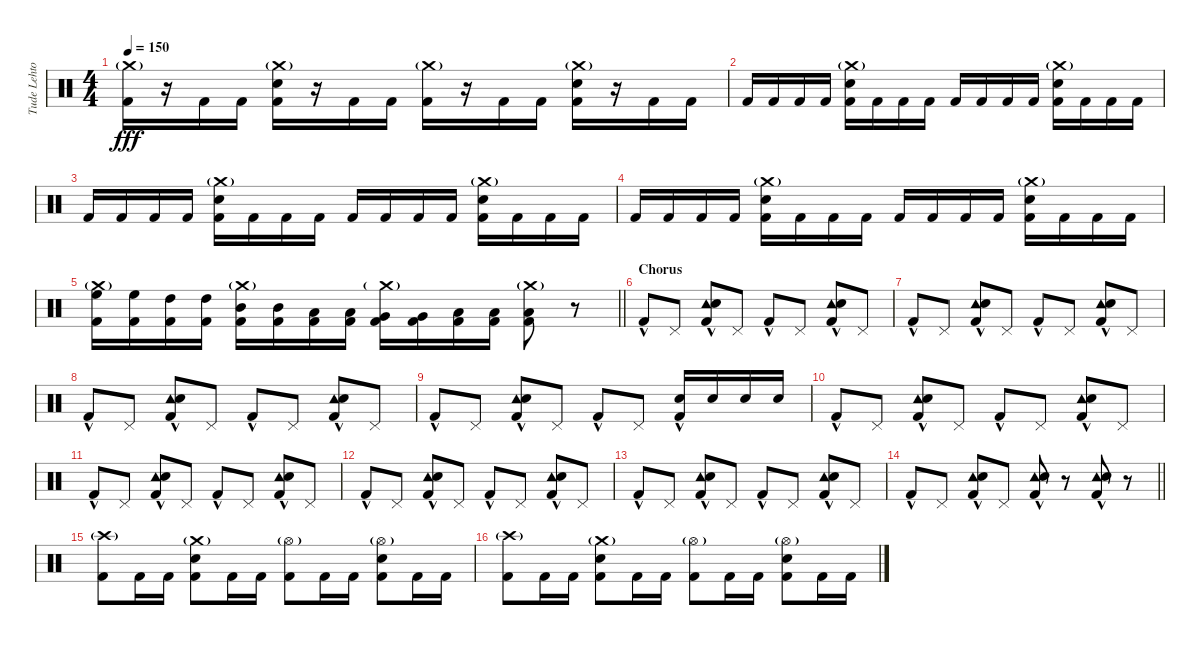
\track ("Tude Lehtonen" "Tude Lehto") {instrument percussion}
\staff {score}
\articulation defaults
\ts (4 4)
\tempo 150
\clef neutral
\ks c
("Crash medium (hit)"{g} "Kick (hit) 2").16{dy fff} r.16 "Kick (hit) 2".16 "Kick (hit) 2".16 ("Crash medium (hit)"{g} "Snare (hit) 2" "Kick (hit) 2").16 r.16 "Kick (hit) 2".16 "Kick (hit) 2".16 ("Crash medium (hit)"{g} "Kick (hit) 2").16 r.16 "Kick (hit) 2".16 "Kick (hit) 2".16 ("Crash medium (hit)"{g} "Snare (hit) 2" "Kick (hit) 2").16 r.16 "Kick (hit) 2".16 "Kick (hit) 2".16 |
"Kick (hit) 2".16 "Kick (hit) 2".16 "Kick (hit) 2".16 "Kick (hit) 2".16 ("Crash medium (hit)"{g} "Snare (hit) 2" "Kick (hit) 2").16 "Kick (hit) 2".16 "Kick (hit) 2".16 "Kick (hit) 2".16 "Kick (hit) 2".16 "Kick (hit) 2".16 "Kick (hit) 2".16 "Kick (hit) 2".16 ("Crash medium (hit)"{g} "Snare (hit) 2" "Kick (hit) 2").16 "Kick (hit) 2".16 "Kick (hit) 2".16 "Kick (hit) 2".16 |
"Kick (hit) 2".16 "Kick (hit) 2".16 "Kick (hit) 2".16 "Kick (hit) 2".16 ("Crash medium (hit)"{g} "Snare (hit) 2" "Kick (hit) 2").16 "Kick (hit) 2".16 "Kick (hit) 2".16 "Kick (hit) 2".16 "Kick (hit) 2".16 "Kick (hit) 2".16 "Kick (hit) 2".16 "Kick (hit) 2".16 ("Crash medium (hit)"{g} "Snare (hit) 2" "Kick (hit) 2").16 "Kick (hit) 2".16 "Kick (hit) 2".16 "Kick (hit) 2".16 |
"Kick (hit) 2".16 "Kick (hit) 2".16 "Kick (hit) 2".16 "Kick (hit) 2".16 ("Crash medium (hit)"{g} "Snare (hit) 2" "Kick (hit) 2").16 "Kick (hit) 2".16 "Kick (hit) 2".16 "Kick (hit) 2".16 "Kick (hit) 2".16 "Kick (hit) 2".16 "Kick (hit) 2".16 "Kick (hit) 2".16 ("Crash medium (hit)"{g} "Snare (hit) 2" "Kick (hit) 2").16 "Kick (hit) 2".16 "Kick (hit) 2".16 "Kick (hit) 2".16 |
\barLineRight lightlight
("Crash medium (hit)"{g} "High Floor Tom (hit)" "Kick (hit) 2").16 ("High Floor Tom (hit)" "Kick (hit) 2").16 ("High Tom (hit)" "Kick (hit) 2").16 ("High Tom (hit)" "Kick (hit) 2").16 ("Crash medium (hit)"{g} "Mid Tom (hit)" "Kick (hit) 2").16 ("Mid Tom (hit)" "Kick (hit) 2").16 ("Low Tom (hit)" "Kick (hit) 2").16 ("Low Tom (hit)" "Kick (hit) 2").16 ("Crash medium (hit)"{g} "Very Low Tom (hit)" "Kick (hit) 2").16 ("Very Low Tom (hit)" "Kick (hit) 2").16 ("Low Floor Tom (hit)" "Kick (hit) 2").16 ("Low Floor Tom (hit)" "Kick (hit) 2").16 ("Crash medium (hit)"{g} "Low Floor Tom (hit)" "Kick (hit) 2").8 r.8 |
\section ("" "Chorus")
"Kick (hit) 2"{hac}.8 "Pedal Hi-Hat (hit)".8 ("Tambourine (hit)" "Snare (hit) 2" "Kick (hit) 2"{hac}).8 "Pedal Hi-Hat (hit)".8 "Kick (hit) 2"{hac}.8 "Pedal Hi-Hat (hit)".8 ("Tambourine (hit)" "Snare (hit) 2" "Kick (hit) 2"{hac}).8 "Pedal Hi-Hat (hit)".8 |
"Kick (hit) 2"{hac}.8 "Pedal Hi-Hat (hit)".8 ("Tambourine (hit)" "Snare (hit) 2" "Kick (hit) 2"{hac}).8 "Pedal Hi-Hat (hit)".8 "Kick (hit) 2"{hac}.8 "Pedal Hi-Hat (hit)".8 ("Tambourine (hit)" "Snare (hit) 2" "Kick (hit) 2"{hac}).8 "Pedal Hi-Hat (hit)".8 |
"Kick (hit) 2"{hac}.8 "Pedal Hi-Hat (hit)".8 ("Tambourine (hit)" "Snare (hit) 2" "Kick (hit) 2"{hac}).8 "Pedal Hi-Hat (hit)".8 "Kick (hit) 2"{hac}.8 "Pedal Hi-Hat (hit)".8 ("Tambourine (hit)" "Snare (hit) 2" "Kick (hit) 2"{hac}).8 "Pedal Hi-Hat (hit)".8 |
"Kick (hit) 2"{hac}.8 "Pedal Hi-Hat (hit)".8 ("Tambourine (hit)" "Snare (hit) 2" "Kick (hit) 2"{hac}).8 "Pedal Hi-Hat (hit)".8 "Kick (hit) 2"{hac}.8 "Pedal Hi-Hat (hit)".8 ("Snare (hit) 2" "Kick (hit) 2"{hac}).16 "Snare (hit) 2".16 "Snare (hit) 2".16 "Snare (hit) 2".16 |
"Kick (hit) 2"{hac}.8 "Pedal Hi-Hat (hit)".8 ("Tambourine (hit)" "Snare (hit) 2" "Kick (hit) 2"{hac}).8 "Pedal Hi-Hat (hit)".8 "Kick (hit) 2"{hac}.8 "Pedal Hi-Hat (hit)".8 ("Tambourine (hit)" "Snare (hit) 2" "Kick (hit) 2"{hac}).8 "Pedal Hi-Hat (hit)".8 |
"Kick (hit) 2"{hac}.8 "Pedal Hi-Hat (hit)".8 ("Tambourine (hit)" "Snare (hit) 2" "Kick (hit) 2"{hac}).8 "Pedal Hi-Hat (hit)".8 "Kick (hit) 2"{hac}.8 "Pedal Hi-Hat (hit)".8 ("Tambourine (hit)" "Snare (hit) 2" "Kick (hit) 2"{hac}).8 "Pedal Hi-Hat (hit)".8 |
"Kick (hit) 2"{hac}.8 "Pedal Hi-Hat (hit)".8 ("Tambourine (hit)" "Snare (hit) 2" "Kick (hit) 2"{hac}).8 "Pedal Hi-Hat (hit)".8 "Kick (hit) 2"{hac}.8 "Pedal Hi-Hat (hit)".8 ("Tambourine (hit)" "Snare (hit) 2" "Kick (hit) 2"{hac}).8 "Pedal Hi-Hat (hit)".8 |
"Kick (hit) 2"{hac}.8 "Pedal Hi-Hat (hit)".8 ("Tambourine (hit)" "Snare (hit) 2" "Kick (hit) 2"{hac}).8 "Pedal Hi-Hat (hit)".8 "Kick (hit) 2"{hac}.8 "Pedal Hi-Hat (hit)".8 ("Tambourine (hit)" "Snare (hit) 2" "Kick (hit) 2"{hac}).8 "Pedal Hi-Hat (hit)".8 |
\barLineRight lightlight "Kick (hit) 2"{hac}.8 "Pedal Hi-Hat (hit)".8
("Tambourine (hit)" "Snare (hit) 2" "Kick (hit) 2"{hac}).8 "Pedal Hi-Hat (hit)".8 ("Tambourine (hit)" "Snare (hit) 2" "Kick (hit) 2"{hac}).8 r.8 ("Tambourine (hit)" "Snare (hit) 2" "Kick (hit) 2"{hac}).8 r.8 |
\section ("" "")
("Crash high (hit)"{g} "Kick (hit) 2").8 "Kick (hit) 2".16 "Kick (hit) 2".16 ("Crash medium (hit)"{g} "Electric Snare (hit)" "Kick (hit) 2").8 "Kick (hit) 2".16 "Kick (hit) 2".16 ("Hi-Hat (open)"{g} "Kick (hit) 2").8 "Kick (hit) 2".16 "Kick (hit) 2".16 ("Hi-Hat (open)"{g} "Electric Snare (hit)" "Kick (hit) 2").8 "Kick (hit) 2".16 "Kick (hit) 2".16 |
("Crash high (hit)"{g} "Kick (hit) 2").8 "Kick (hit) 2".16 "Kick (hit) 2".16 ("Crash medium (hit)"{g} "Electric Snare (hit)" "Kick (hit) 2").8 "Kick (hit) 2".16 "Kick (hit) 2".16 ("Hi-Hat (open)"{g} "Kick (hit) 2").8 "Kick (hit) 2".16 "Kick (hit) 2".16 ("Hi-Hat (open)"{g} "Electric Snare (hit)" "Kick (hit) 2").8 "Kick (hit) 2".16 "Kick (hit) 2".16
